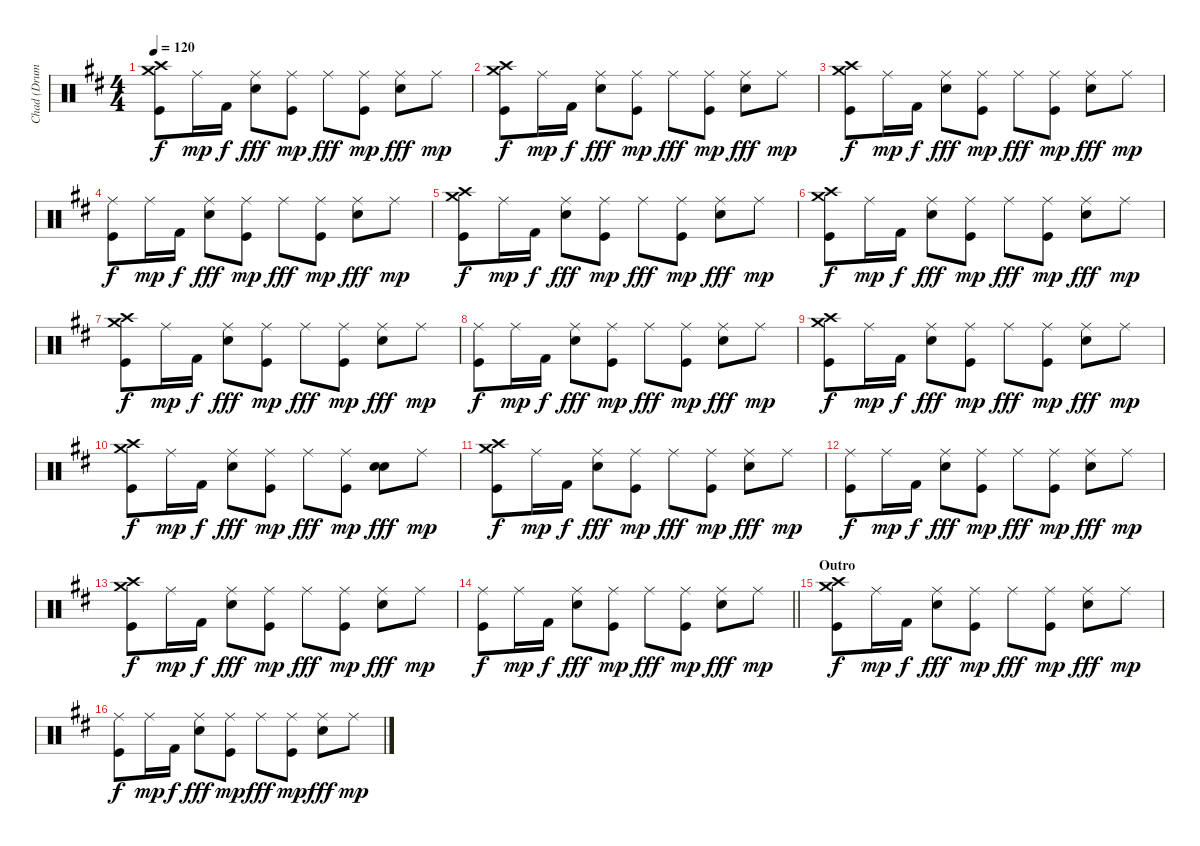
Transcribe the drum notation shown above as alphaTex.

\track ("Chad (Drums)" "Chad (Drum") {instrument percussion}
\staff {score}
\articulation defaults
\ts (4 4)
\tempo 120
\clef neutral
\ks d
("Crash high (hit)" "Crash medium (hit)" "Kick (hit)").8{dy f} "Ride (middle)".16{dy mp} "Kick (hit) 2".16{dy f} ("Ride (middle)" "Snare (hit) 2").8{dy fff} ("Ride (middle)" "Kick (hit)").8{dy mp} "Ride (middle)".8{dy fff} ("Ride (middle)" "Kick (hit)").8{dy mp} ("Ride (middle)" "Snare (hit) 2").8{dy fff} "Ride (middle)".8{dy mp} |
("Crash high (hit)" "Crash medium (hit)" "Kick (hit)").8{dy f} "Ride (middle)".16{dy mp} "Kick (hit) 2".16{dy f} ("Ride (middle)" "Snare (hit) 2").8{dy fff} ("Ride (middle)" "Kick (hit)").8{dy mp} "Ride (middle)".8{dy fff} ("Ride (middle)" "Kick (hit)").8{dy mp} ("Ride (middle)" "Snare (hit) 2").8{dy fff} "Ride (middle)".8{dy mp} |
("Crash high (hit)" "Crash medium (hit)" "Kick (hit)").8{dy f} "Ride (middle)".16{dy mp} "Kick (hit) 2".16{dy f} ("Ride (middle)" "Snare (hit) 2").8{dy fff} ("Ride (middle)" "Kick (hit)").8{dy mp} "Ride (middle)".8{dy fff} ("Ride (middle)" "Kick (hit)").8{dy mp} ("Ride (middle)" "Snare (hit) 2").8{dy fff} "Ride (middle)".8{dy mp} |
("Ride (middle)" "Kick (hit)").8{dy f} "Ride (middle)".16{dy mp} "Kick (hit) 2".16{dy f} ("Ride (middle)" "Snare (hit) 2").8{dy fff} ("Ride (middle)" "Kick (hit)").8{dy mp} "Ride (middle)".8{dy fff} ("Ride (middle)" "Kick (hit)").8{dy mp} ("Ride (middle)" "Snare (hit) 2").8{dy fff} "Ride (middle)".8{dy mp} |
("Crash high (hit)" "Crash medium (hit)" "Kick (hit)").8{dy f} "Ride (middle)".16{dy mp} "Kick (hit) 2".16{dy f} ("Ride (middle)" "Snare (hit) 2").8{dy fff} ("Ride (middle)" "Kick (hit)").8{dy mp} "Ride (middle)".8{dy fff} ("Ride (middle)" "Kick (hit)").8{dy mp} ("Ride (middle)" "Snare (hit) 2").8{dy fff} "Ride (middle)".8{dy mp} |
("Crash high (hit)" "Crash medium (hit)" "Kick (hit)").8{dy f} "Ride (middle)".16{dy mp} "Kick (hit) 2".16{dy f} ("Ride (middle)" "Snare (hit) 2").8{dy fff} ("Ride (middle)" "Kick (hit)").8{dy mp} "Ride (middle)".8{dy fff} ("Ride (middle)" "Kick (hit)").8{dy mp} ("Ride (middle)" "Snare (hit) 2").8{dy fff} "Ride (middle)".8{dy mp} |
("Crash high (hit)" "Crash medium (hit)" "Kick (hit)").8{dy f} "Ride (middle)".16{dy mp} "Kick (hit) 2".16{dy f} ("Ride (middle)" "Snare (hit) 2").8{dy fff} ("Ride (middle)" "Kick (hit)").8{dy mp} "Ride (middle)".8{dy fff} ("Ride (middle)" "Kick (hit)").8{dy mp} ("Ride (middle)" "Snare (hit) 2").8{dy fff} "Ride (middle)".8{dy mp} |
("Ride (middle)" "Kick (hit)").8{dy f} "Ride (middle)".16{dy mp} "Kick (hit) 2".16{dy f} ("Ride (middle)" "Snare (hit) 2").8{dy fff} ("Ride (middle)" "Kick (hit)").8{dy mp} "Ride (middle)".8{dy fff} ("Ride (middle)" "Kick (hit)").8{dy mp} ("Ride (middle)" "Snare (hit) 2").8{dy fff} "Ride (middle)".8{dy mp} |
("Crash high (hit)" "Crash medium (hit)" "Kick (hit)").8{dy f} "Ride (middle)".16{dy mp} "Kick (hit) 2".16{dy f} ("Ride (middle)" "Snare (hit) 2").8{dy fff} ("Ride (middle)" "Kick (hit)").8{dy mp} "Ride (middle)".8{dy fff} ("Ride (middle)" "Kick (hit)").8{dy mp} ("Ride (middle)" "Snare (hit) 2").8{dy fff} "Ride (middle)".8{dy mp} |
("Crash high (hit)" "Crash medium (hit)" "Kick (hit)").8{dy f} "Ride (middle)".16{dy mp} "Kick (hit) 2".16{dy f} ("Ride (middle)" "Snare (hit) 2").8{dy fff} ("Ride (middle)" "Kick (hit)").8{dy mp} "Ride (middle)".8{dy fff} ("Ride (middle)" "Kick (hit)").8{dy mp} ("Snare (hit) 2" "Snare (hit) 2").8{bd 240 dy fff} "Ride (middle)".8{dy mp} |
("Crash high (hit)" "Crash medium (hit)" "Kick (hit)").8{dy f} "Ride (middle)".16{dy mp} "Kick (hit) 2".16{dy f} ("Ride (middle)" "Snare (hit) 2").8{dy fff} ("Ride (middle)" "Kick (hit)").8{dy mp} "Ride (middle)".8{dy fff} ("Ride (middle)" "Kick (hit)").8{dy mp} ("Ride (middle)" "Snare (hit) 2").8{dy fff} "Ride (middle)".8{dy mp} |
("Ride (middle)" "Kick (hit)").8{dy f} "Ride (middle)".16{dy mp} "Kick (hit) 2".16{dy f} ("Ride (middle)" "Snare (hit) 2").8{dy fff} ("Ride (middle)" "Kick (hit)").8{dy mp} "Ride (middle)".8{dy fff} ("Ride (middle)" "Kick (hit)").8{dy mp} ("Ride (middle)" "Snare (hit) 2").8{dy fff} "Ride (middle)".8{dy mp} |
("Crash high (hit)" "Crash medium (hit)" "Kick (hit)").8{dy f} "Ride (middle)".16{dy mp} "Kick (hit) 2".16{dy f} ("Ride (middle)" "Snare (hit) 2").8{dy fff} ("Ride (middle)" "Kick (hit)").8{dy mp} "Ride (middle)".8{dy fff} ("Ride (middle)" "Kick (hit)").8{dy mp} ("Ride (middle)" "Snare (hit) 2").8{dy fff} "Ride (middle)".8{dy mp} |
\barLineRight lightlight
("Ride (middle)" "Kick (hit)").8{dy f} "Ride (middle)".16{dy mp} "Kick (hit) 2".16{dy f} ("Ride (middle)" "Snare (hit) 2").8{dy fff} ("Ride (middle)" "Kick (hit)").8{dy mp} "Ride (middle)".8{dy fff} ("Ride (middle)" "Kick (hit)").8{dy mp} ("Ride (middle)" "Snare (hit) 2").8{dy fff} "Ride (middle)".8{dy mp} |
\section ("" "Outro")
("Crash high (hit)" "Crash medium (hit)" "Kick (hit)").8{dy f} "Ride (middle)".16{dy mp} "Kick (hit) 2".16{dy f} ("Ride (middle)" "Snare (hit) 2").8{dy fff} ("Ride (middle)" "Kick (hit)").8{dy mp} "Ride (middle)".8{dy fff} ("Ride (middle)" "Kick (hit)").8{dy mp} ("Ride (middle)" "Snare (hit) 2").8{dy fff} "Ride (middle)".8{dy mp} |
("Ride (middle)" "Kick (hit)").8{dy f} "Ride (middle)".16{dy mp} "Kick (hit) 2".16{dy f} ("Ride (middle)" "Snare (hit) 2").8{dy fff} ("Ride (middle)" "Kick (hit)").8{dy mp} "Ride (middle)".8{dy fff} ("Ride (middle)" "Kick (hit)").8{dy mp} ("Ride (middle)" "Snare (hit) 2").8{dy fff} "Ride (middle)".8{dy mp}
